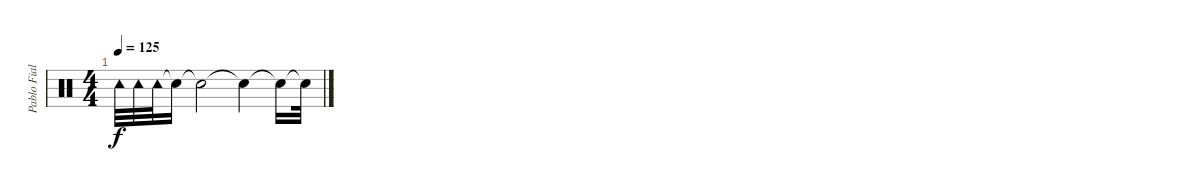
\track ("Pablo Fiallo" "Pablo Fial") {instrument percussion}
\staff {score}
\articulation defaults
\ts (4 4)
\tempo 125
\clef neutral
\ks c "Tambourine (hit)".32{dy f} "Tambourine (hit)".32 "Tambourine (hit)".32 "Snare (hit)"{t}.16 "Snare (hit)"{t}.2 "Snare (hit)"{t}.4 "Snare (hit)"{t}.16 "Snare (hit)"{t}.32
